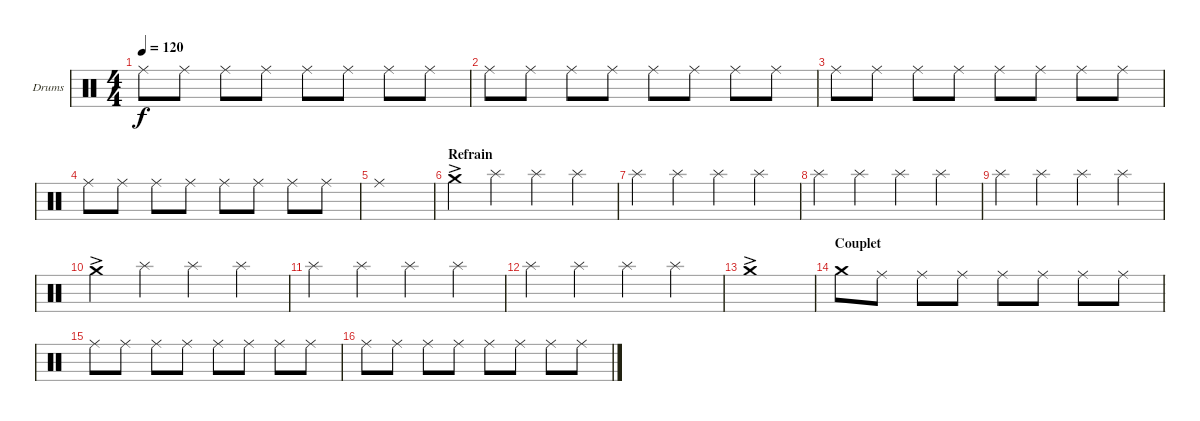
\defaultSystemsLayout 4
\bracketExtendMode groupsimilarinstruments
\firstSystemTrackNameOrientation horizontal
\otherSystemsTrackNameOrientation horizontal
\track ("Drumkit" "Drums") {multiBarRest instrument percussion}
\staff {score}
\articulation defaults
\ts (4 4)
\tempo 120
\clef neutral
\ks c "Ride (middle)".8{dy f} "Ride (middle)".8 "Ride (middle)".8 "Ride (middle)".8 "Ride (middle)".8 "Ride (middle)".8 "Ride (middle)".8 "Ride (middle)".8
|
"Ride (middle)".8 "Ride (middle)".8 "Ride (middle)".8 "Ride (middle)".8 "Ride (middle)".8 "Ride (middle)".8 "Ride (middle)".8 "Ride (middle)".8 |
"Ride (middle)".8 "Ride (middle)".8 "Ride (middle)".8 "Ride (middle)".8 "Ride (middle)".8 "Ride (middle)".8 "Ride (middle)".8 "Ride (middle)".8 |
"Ride (middle)".8 "Ride (middle)".8 "Ride (middle)".8 "Ride (middle)".8 "Ride (middle)".8 "Ride (middle)".8 "Ride (middle)".8 "Ride (middle)".8 |
"Ride (middle)".1 |
\section ("" "Refrain")
"Crash medium (hit)"{ac}.4 "Splash (hit)".4 "Splash (hit)".4 "Splash (hit)".4 |
"Splash (hit)".4 "Splash (hit)".4 "Splash (hit)".4 "Splash (hit)".4 |
"Splash (hit)".4 "Splash (hit)".4 "Splash (hit)".4 "Splash (hit)".4 |
"Splash (hit)".4 "Splash (hit)".4 "Splash (hit)".4 "Splash (hit)".4 |
"Crash medium (hit)"{ac}.4 "Splash (hit)".4 "Splash (hit)".4 "Splash (hit)".4 |
"Splash (hit)".4 "Splash (hit)".4 "Splash (hit)".4 "Splash (hit)".4 |
"Splash (hit)".4 "Splash (hit)".4 "Splash (hit)".4 "Splash (hit)".4 |
"Crash medium (hit)"{ac}.1 |
\section ("" "Couplet")
"Crash medium (hit)".8 "Ride (middle)".8 "Ride (middle)".8 "Ride (middle)".8 "Ride (middle)".8 "Ride (middle)".8 "Ride (middle)".8 "Ride (middle)".8 |
"Ride (middle)".8 "Ride (middle)".8 "Ride (middle)".8 "Ride (middle)".8 "Ride (middle)".8 "Ride (middle)".8 "Ride (middle)".8 "Ride (middle)".8 |
"Ride (middle)".8 "Ride (middle)".8 "Ride (middle)".8 "Ride (middle)".8 "Ride (middle)".8 "Ride (middle)".8 "Ride (middle)".8 "Ride (middle)".8
